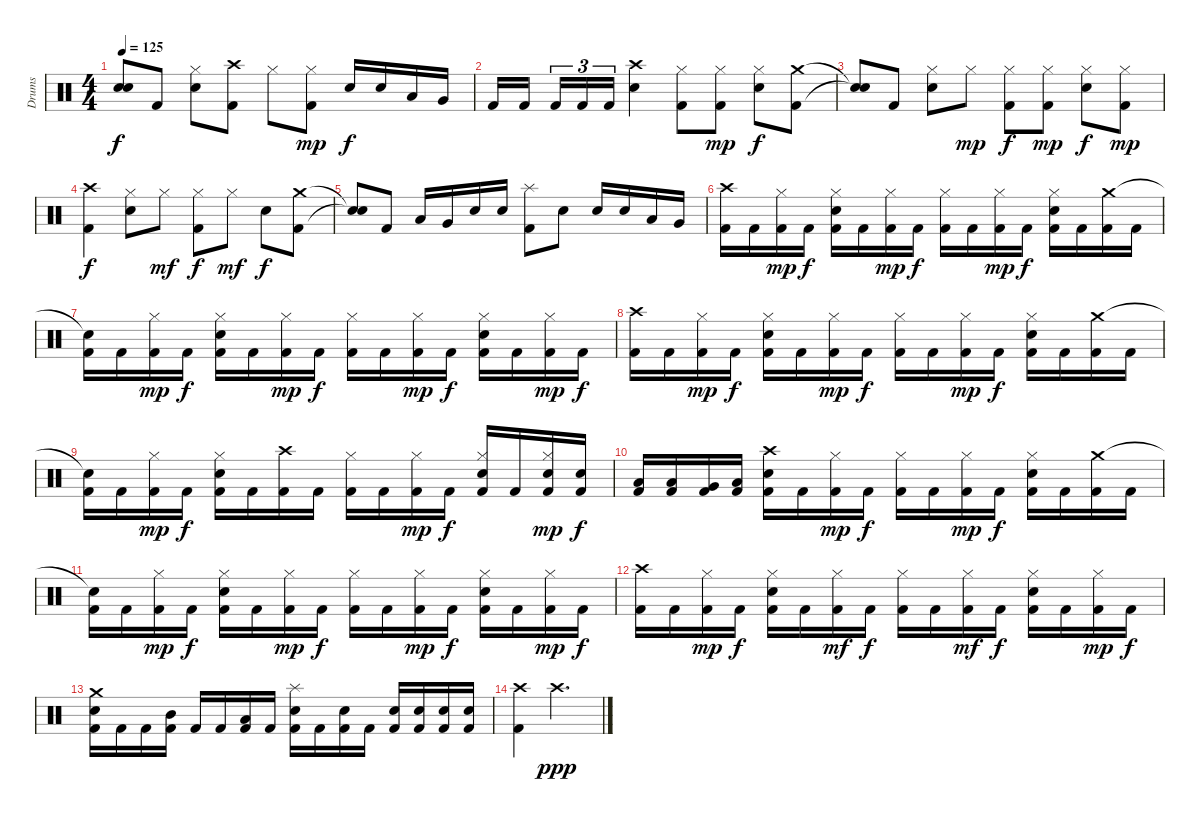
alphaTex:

\track ("Drums" "Drums") {instrument percussion}
\staff {score}
\articulation defaults
\ts (4 4)
\tempo 125
\clef neutral
\ks c
("Snare (hit)"{t} "Snare (hit)"{t}).8{dy f} "Kick (hit) 2".8 ("Hi-Hat (closed)" "Electric Snare (hit)").8 ("Kick (hit) 2" "Crash high (hit)").8 "Hi-Hat (closed)".8 ("Kick (hit) 2" "Hi-Hat (closed)").8{dy mp} "Electric Snare (hit)".16{dy f} "Electric Snare (hit)".16 "Low Tom (hit)".16 "Very Low Tom (hit)".16 |
"Kick (hit) 2".16 "Kick (hit) 2".16{beam splitsecondary} "Kick (hit) 2".16{tu (3 2)} "Kick (hit) 2".16{tu (3 2)} "Kick (hit) 2".16{tu (3 2)} ("Crash high (hit)" "Electric Snare (hit)").4 ("Kick (hit) 2" "Hi-Hat (closed)").8 ("Kick (hit) 2" "Hi-Hat (closed)").8{dy mp} ("Hi-Hat (closed)" "Electric Snare (hit)").8{dy f} ("Kick (hit) 2" "Crash medium (hit)").8 |
("Snare (hit)"{t} "Snare (hit)"{t}).8 "Kick (hit) 2".8 ("Hi-Hat (closed)" "Electric Snare (hit)").8 "Hi-Hat (closed)".8{dy mp} ("Kick (hit) 2" "Hi-Hat (closed)").8{dy f} ("Kick (hit) 2" "Hi-Hat (closed)").8{dy mp} ("Hi-Hat (closed)" "Electric Snare (hit)").8{dy f} ("Kick (hit) 2" "Hi-Hat (closed)").8{dy mp} |
("Kick (hit) 2" "Crash high (hit)").4{dy f} ("Hi-Hat (closed)" "Electric Snare (hit)").8 "Hi-Hat (closed)".8{dy mf} ("Kick (hit) 2" "Hi-Hat (closed)").8{dy f} "Hi-Hat (closed)".8{dy mf} "Electric Snare (hit)".8{dy f} ("Kick (hit) 2" "Crash medium (hit)").8 |
("Snare (hit)"{t} "Snare (hit)"{t}).8 "Kick (hit) 2".8 "Low Tom (hit)".16 "Very Low Tom (hit)".16 "Electric Snare (hit)".16 "Electric Snare (hit)".16 ("Kick (hit) 2" "Splash (hit)").8 "Electric Snare (hit)".8 "Electric Snare (hit)".16 "Electric Snare (hit)".16 "Low Tom (hit)".16 "Very Low Tom (hit)".16 |
("Kick (hit) 2" "Crash high (hit)").16 "Kick (hit) 2".16 ("Kick (hit) 2" "Hi-Hat (closed)").16{dy mp} "Kick (hit) 2".16{dy f} ("Kick (hit) 2" "Hi-Hat (closed)" "Electric Snare (hit)").16 "Kick (hit) 2".16 ("Kick (hit) 2" "Hi-Hat (closed)").16{dy mp} "Kick (hit) 2".16{dy f} ("Kick (hit) 2" "Hi-Hat (closed)").16 "Kick (hit) 2".16 ("Kick (hit) 2" "Hi-Hat (closed)").16{dy mp} "Kick (hit) 2".16{dy f} ("Kick (hit) 2" "Hi-Hat (closed)" "Electric Snare (hit)").16 "Kick (hit) 2".16 ("Kick (hit) 2" "Crash medium (hit)").16 "Kick (hit) 2".16 |
("Kick (hit) 2" "Snare (hit)"{t}).16 "Kick (hit) 2".16 ("Kick (hit) 2" "Hi-Hat (closed)").16{dy mp} "Kick (hit) 2".16{dy f} ("Kick (hit) 2" "Hi-Hat (closed)" "Electric Snare (hit)").16 "Kick (hit) 2".16 ("Kick (hit) 2" "Hi-Hat (closed)").16{dy mp} "Kick (hit) 2".16{dy f} ("Kick (hit) 2" "Hi-Hat (closed)").16 "Kick (hit) 2".16 ("Kick (hit) 2" "Hi-Hat (closed)").16{dy mp} "Kick (hit) 2".16{dy f} ("Kick (hit) 2" "Hi-Hat (closed)" "Electric Snare (hit)").16 "Kick (hit) 2".16 ("Kick (hit) 2" "Hi-Hat (closed)").16{dy mp} "Kick (hit) 2".16{dy f} |
("Kick (hit) 2" "Crash high (hit)").16 "Kick (hit) 2".16 ("Kick (hit) 2" "Hi-Hat (closed)").16{dy mp} "Kick (hit) 2".16{dy f} ("Kick (hit) 2" "Hi-Hat (closed)" "Electric Snare (hit)").16 "Kick (hit) 2".16 ("Kick (hit) 2" "Hi-Hat (closed)").16{dy mp} "Kick (hit) 2".16{dy f} ("Kick (hit) 2" "Hi-Hat (closed)").16 "Kick (hit) 2".16 ("Kick (hit) 2" "Hi-Hat (closed)").16{dy mp} "Kick (hit) 2".16{dy f} ("Kick (hit) 2" "Hi-Hat (closed)" "Electric Snare (hit)").16 "Kick (hit) 2".16 ("Kick (hit) 2" "Crash medium (hit)").16 "Kick (hit) 2".16 |
("Kick (hit) 2" "Snare (hit)"{t}).16 "Kick (hit) 2".16 ("Kick (hit) 2" "Hi-Hat (closed)").16{dy mp} "Kick (hit) 2".16{dy f} ("Kick (hit) 2" "Hi-Hat (closed)" "Electric Snare (hit)").16 "Kick (hit) 2".16 ("Kick (hit) 2" "Crash high (hit)").16 "Kick (hit) 2".16 ("Kick (hit) 2" "Hi-Hat (closed)").16 "Kick (hit) 2".16 ("Kick (hit) 2" "Hi-Hat (closed)").16{dy mp} "Kick (hit) 2".16{dy f} ("Kick (hit) 2" "Hi-Hat (closed)" "Electric Snare (hit)").16 "Kick (hit) 2".16 ("Kick (hit) 2" "Hi-Hat (closed)" "Electric Snare (hit)").16{dy mp} ("Kick (hit) 2" "Electric Snare (hit)").16{dy f} |
("Kick (hit) 2" "Low Tom (hit)").16 ("Kick (hit) 2" "Low Tom (hit)").16 ("Kick (hit) 2" "Very Low Tom (hit)").16 ("Kick (hit) 2" "Low Floor Tom (hit)").16 ("Kick (hit) 2" "Crash high (hit)" "Electric Snare (hit)").16 "Kick (hit) 2".16 ("Kick (hit) 2" "Hi-Hat (closed)").16{dy mp} "Kick (hit) 2".16{dy f} ("Kick (hit) 2" "Hi-Hat (closed)").16 "Kick (hit) 2".16 ("Kick (hit) 2" "Hi-Hat (closed)").16{dy mp} "Kick (hit) 2".16{dy f} ("Kick (hit) 2" "Hi-Hat (closed)" "Electric Snare (hit)").16 "Kick (hit) 2".16 ("Kick (hit) 2" "Crash medium (hit)").16 "Kick (hit) 2".16 |
("Kick (hit) 2" "Snare (hit)"{t}).16 "Kick (hit) 2".16 ("Kick (hit) 2" "Hi-Hat (closed)").16{dy mp} "Kick (hit) 2".16{dy f} ("Kick (hit) 2" "Hi-Hat (closed)" "Electric Snare (hit)").16 "Kick (hit) 2".16 ("Kick (hit) 2" "Hi-Hat (closed)").16{dy mp} "Kick (hit) 2".16{dy f} ("Kick (hit) 2" "Hi-Hat (closed)").16 "Kick (hit) 2".16 ("Kick (hit) 2" "Hi-Hat (closed)").16{dy mp} "Kick (hit) 2".16{dy f} ("Kick (hit) 2" "Hi-Hat (closed)" "Electric Snare (hit)").16 "Kick (hit) 2".16 ("Kick (hit) 2" "Hi-Hat (closed)").16{dy mp} "Kick (hit) 2".16{dy f} |
("Kick (hit) 2" "Crash high (hit)").16 "Kick (hit) 2".16 ("Kick (hit) 2" "Hi-Hat (closed)").16{dy mp} "Kick (hit) 2".16{dy f} ("Kick (hit) 2" "Hi-Hat (closed)" "Electric Snare (hit)").16 "Kick (hit) 2".16 ("Kick (hit) 2" "Hi-Hat (closed)").16{dy mf} "Kick (hit) 2".16{dy f} ("Kick (hit) 2" "Hi-Hat (closed)").16 "Kick (hit) 2".16 ("Kick (hit) 2" "Hi-Hat (closed)").16{dy mf} "Kick (hit) 2".16{dy f} ("Kick (hit) 2" "Hi-Hat (closed)" "Electric Snare (hit)").16 "Kick (hit) 2".16 ("Kick (hit) 2" "Hi-Hat (closed)").16{dy mp} "Kick (hit) 2".16{dy f} |
("Kick (hit) 2" "Crash medium (hit)" "Electric Snare (hit)").16 "Kick (hit) 2".16 "Kick (hit) 2".16 ("Kick (hit) 2" "Mid Tom (hit)").16 "Kick (hit) 2".16 "Kick (hit) 2".16 ("Kick (hit) 2" "Low Tom (hit)").16 "Kick (hit) 2".16 ("Kick (hit) 2" "Splash (hit)" "Electric Snare (hit)").16 "Kick (hit) 2".16 ("Kick (hit) 2" "Electric Snare (hit)").16 "Kick (hit) 2".16 ("Kick (hit) 2" "Electric Snare (hit)").16 ("Kick (hit) 2" "Electric Snare (hit)").16 ("Kick (hit) 2" "Electric Snare (hit)").16 ("Kick (hit) 2" "Electric Snare (hit)").16 |
("Kick (hit) 2" "Crash high (hit)").4 "Crash high (hit)".2{d dy ppp}
